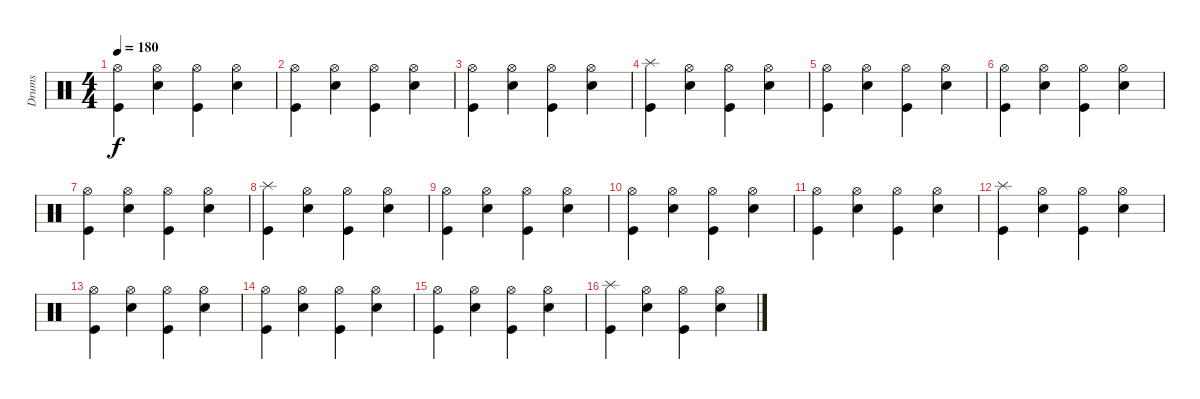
\track ("Drums" "Drums") {instrument percussion}
\staff {score}
\articulation defaults
\ts (4 4)
\tempo 180
\clef neutral
\ks c
("Kick (hit)" "Hi-Hat (open)").4{dy f} ("Electric Snare (hit)" "Hi-Hat (open)").4 ("Kick (hit)" "Hi-Hat (open)").4 ("Electric Snare (hit)" "Hi-Hat (open)").4 |
("Kick (hit)" "Hi-Hat (open)").4 ("Electric Snare (hit)" "Hi-Hat (open)").4 ("Kick (hit)" "Hi-Hat (open)").4 ("Electric Snare (hit)" "Hi-Hat (open)").4 |
("Kick (hit)" "Hi-Hat (open)").4 ("Electric Snare (hit)" "Hi-Hat (open)").4 ("Kick (hit)" "Hi-Hat (open)").4 ("Electric Snare (hit)" "Hi-Hat (open)").4 |
("Kick (hit)" "Splash (hit)").4 ("Electric Snare (hit)" "Hi-Hat (open)").4 ("Kick (hit)" "Hi-Hat (open)").4 ("Electric Snare (hit)" "Hi-Hat (open)").4 |
("Kick (hit)" "Hi-Hat (open)").4 ("Electric Snare (hit)" "Hi-Hat (open)").4 ("Kick (hit)" "Hi-Hat (open)").4 ("Electric Snare (hit)" "Hi-Hat (open)").4 |
("Kick (hit)" "Hi-Hat (open)").4 ("Electric Snare (hit)" "Hi-Hat (open)").4 ("Kick (hit)" "Hi-Hat (open)").4 ("Electric Snare (hit)" "Hi-Hat (open)").4 |
("Kick (hit)" "Hi-Hat (open)").4 ("Electric Snare (hit)" "Hi-Hat (open)").4 ("Kick (hit)" "Hi-Hat (open)").4 ("Electric Snare (hit)" "Hi-Hat (open)").4 |
("Kick (hit)" "Splash (hit)").4 ("Electric Snare (hit)" "Hi-Hat (open)").4 ("Kick (hit)" "Hi-Hat (open)").4 ("Electric Snare (hit)" "Hi-Hat (open)").4 |
("Kick (hit)" "Hi-Hat (open)").4 ("Electric Snare (hit)" "Hi-Hat (open)").4 ("Kick (hit)" "Hi-Hat (open)").4 ("Electric Snare (hit)" "Hi-Hat (open)").4 |
("Kick (hit)" "Hi-Hat (open)").4 ("Electric Snare (hit)" "Hi-Hat (open)").4 ("Kick (hit)" "Hi-Hat (open)").4 ("Electric Snare (hit)" "Hi-Hat (open)").4 |
("Kick (hit)" "Hi-Hat (open)").4 ("Electric Snare (hit)" "Hi-Hat (open)").4 ("Kick (hit)" "Hi-Hat (open)").4 ("Electric Snare (hit)" "Hi-Hat (open)").4 |
("Kick (hit)" "Splash (hit)").4 ("Electric Snare (hit)" "Hi-Hat (open)").4 ("Kick (hit)" "Hi-Hat (open)").4 ("Electric Snare (hit)" "Hi-Hat (open)").4 |
("Kick (hit)" "Hi-Hat (open)").4 ("Electric Snare (hit)" "Hi-Hat (open)").4 ("Kick (hit)" "Hi-Hat (open)").4 ("Electric Snare (hit)" "Hi-Hat (open)").4 |
("Kick (hit)" "Hi-Hat (open)").4 ("Electric Snare (hit)" "Hi-Hat (open)").4 ("Kick (hit)" "Hi-Hat (open)").4 ("Electric Snare (hit)" "Hi-Hat (open)").4 |
("Kick (hit)" "Hi-Hat (open)").4 ("Electric Snare (hit)" "Hi-Hat (open)").4 ("Kick (hit)" "Hi-Hat (open)").4 ("Electric Snare (hit)" "Hi-Hat (open)").4 |
("Kick (hit)" "Splash (hit)").4 ("Electric Snare (hit)" "Hi-Hat (open)").4 ("Kick (hit)" "Hi-Hat (open)").4 ("Electric Snare (hit)" "Hi-Hat (open)").4
